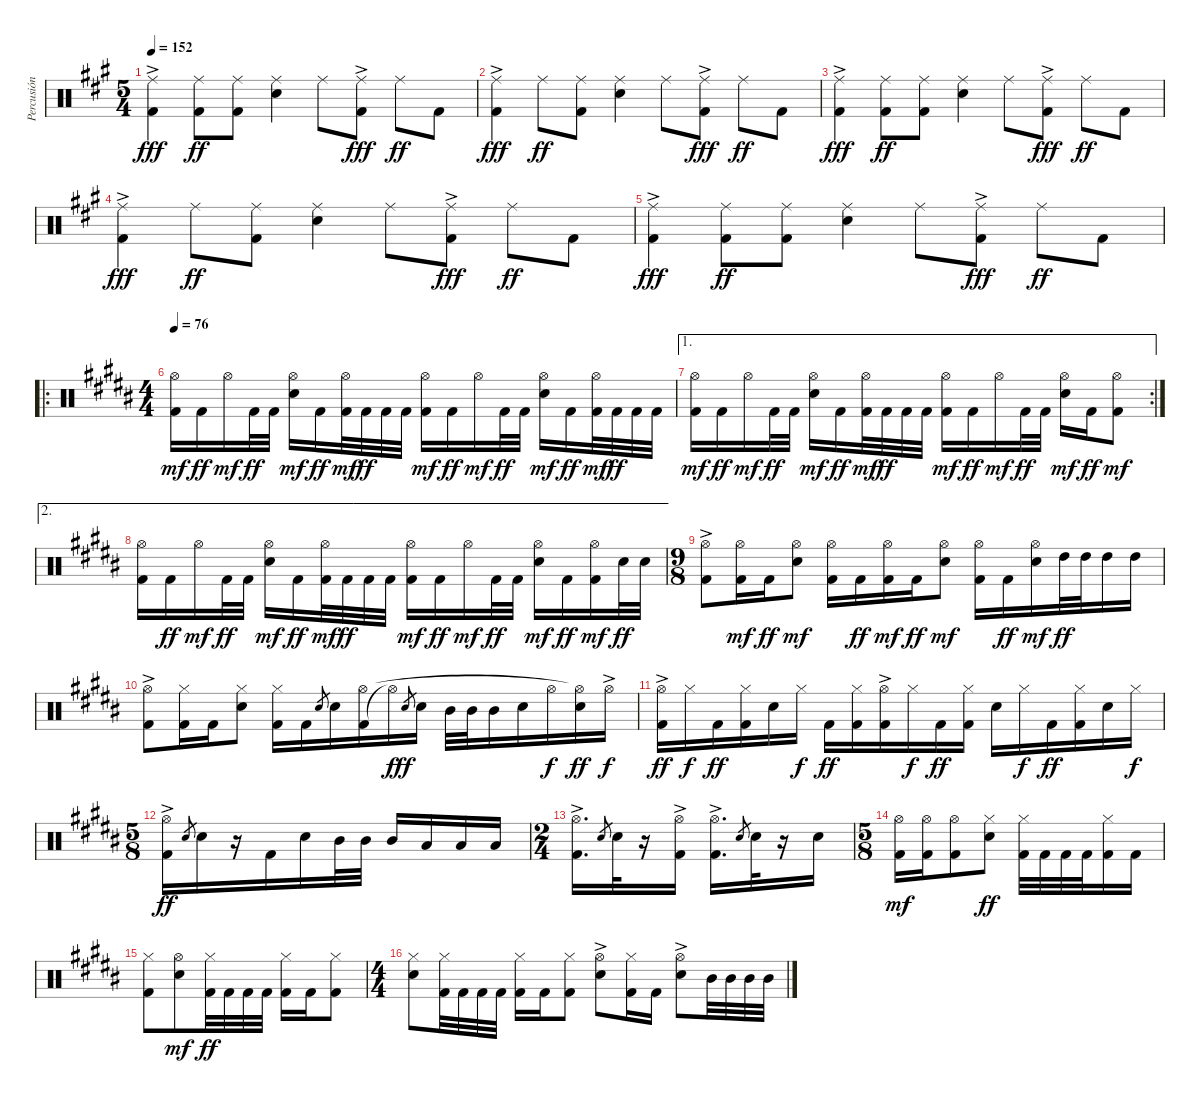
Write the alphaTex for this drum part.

\track ("Percusión" "Percusión") {instrument percussion}
\staff {score}
\articulation defaults
\ts (5 4)
\tempo 152
\clef neutral
\ks a
("Kick (hit) 2" "Ride (middle)"{ac}).4{dy fff} ("Kick (hit) 2" "Ride (middle)").8{dy ff} ("Kick (hit) 2" "Ride (middle)").8 ("Electric Snare (hit)" "Ride (middle)").4 "Ride (middle)".8 ("Kick (hit) 2" "Ride (middle)"{ac}).8{dy fff} "Ride (middle)".8{dy ff} "Kick (hit) 2".8 |
("Kick (hit) 2" "Ride (middle)"{ac}).4{dy fff} "Ride (middle)".8{dy ff} ("Kick (hit) 2" "Ride (middle)").8 ("Electric Snare (hit)" "Ride (middle)").4 "Ride (middle)".8 ("Kick (hit) 2" "Ride (middle)"{ac}).8{dy fff} "Ride (middle)".8{dy ff} "Kick (hit) 2".8 |
("Kick (hit) 2" "Ride (middle)"{ac}).4{dy fff} ("Kick (hit) 2" "Ride (middle)").8{dy ff} ("Kick (hit) 2" "Ride (middle)").8 ("Electric Snare (hit)" "Ride (middle)").4 "Ride (middle)".8 ("Kick (hit) 2" "Ride (middle)"{ac}).8{dy fff} "Ride (middle)".8{dy ff} "Kick (hit) 2".8 |
("Kick (hit) 2" "Ride (middle)"{ac}).4{dy fff} "Ride (middle)".8{dy ff} ("Kick (hit) 2" "Ride (middle)").8 ("Electric Snare (hit)" "Ride (middle)").4 "Ride (middle)".8 ("Kick (hit) 2" "Ride (middle)"{ac}).8{dy fff} "Ride (middle)".8{dy ff} "Kick (hit) 2".8 |
("Kick (hit) 2" "Ride (middle)"{ac}).4{dy fff} ("Kick (hit) 2" "Ride (middle)").8{dy ff} ("Kick (hit) 2" "Ride (middle)").8 ("Electric Snare (hit)" "Ride (middle)").4 "Ride (middle)".8 ("Kick (hit) 2" "Ride (middle)"{ac}).8{dy fff} "Ride (middle)".8{dy ff} "Kick (hit) 2".8 |
\ro
\ts (4 4)
\tempo 76
\ks b
("Kick (hit) 2" "Hi-Hat (open)").16{dy mf} "Kick (hit) 2".16{dy ff} "Hi-Hat (open)".16{dy mf} "Kick (hit) 2".32{dy ff} "Kick (hit) 2".32 ("Electric Snare (hit)" "Hi-Hat (open)").16{dy mf} "Kick (hit) 2".16{dy ff} ("Kick (hit) 2" "Hi-Hat (open)").32{dy mf} "Kick (hit) 2".32{dy ff} "Kick (hit) 2".32 "Kick (hit) 2".32 ("Kick (hit) 2" "Hi-Hat (open)").16{dy mf} "Kick (hit) 2".16{dy ff} "Hi-Hat (open)".16{dy mf} "Kick (hit) 2".32{dy ff} "Kick (hit) 2".32 ("Electric Snare (hit)" "Hi-Hat (open)").16{dy mf} "Kick (hit) 2".16{dy ff} ("Kick (hit) 2" "Hi-Hat (open)").32{dy mf} "Kick (hit) 2".32{dy ff} "Kick (hit) 2".32 "Kick (hit) 2".32 |
\ae 1
\rc 2
("Kick (hit) 2" "Hi-Hat (open)").16{dy mf} "Kick (hit) 2".16{dy ff} "Hi-Hat (open)".16{dy mf} "Kick (hit) 2".32{dy ff} "Kick (hit) 2".32 ("Electric Snare (hit)" "Hi-Hat (open)").16{dy mf} "Kick (hit) 2".16{dy ff} ("Kick (hit) 2" "Hi-Hat (open)").32{dy mf} "Kick (hit) 2".32{dy ff} "Kick (hit) 2".32 "Kick (hit) 2".32 ("Kick (hit) 2" "Hi-Hat (open)").16{dy mf} "Kick (hit) 2".16{dy ff} "Hi-Hat (open)".16{dy mf} "Kick (hit) 2".32{dy ff} "Kick (hit) 2".32 ("Electric Snare (hit)" "Hi-Hat (open)").16{dy mf} "Kick (hit) 2".16{dy ff} ("Kick (hit) 2" "Hi-Hat (open)").8{dy mf} |
\ae 2
("Kick (hit) 2" "Hi-Hat (open)").16 "Kick (hit) 2".16{dy ff} "Hi-Hat (open)".16{dy mf} "Kick (hit) 2".32{dy ff} "Kick (hit) 2".32 ("Electric Snare (hit)" "Hi-Hat (open)").16{dy mf} "Kick (hit) 2".16{dy ff} ("Kick (hit) 2" "Hi-Hat (open)").32{dy mf} "Kick (hit) 2".32{dy ff} "Kick (hit) 2".32 "Kick (hit) 2".32 ("Kick (hit) 2" "Hi-Hat (open)").16{dy mf} "Kick (hit) 2".16{dy ff} "Hi-Hat (open)".16{dy mf} "Kick (hit) 2".32{dy ff} "Kick (hit) 2".32 ("Electric Snare (hit)" "Hi-Hat (open)").16{dy mf} "Kick (hit) 2".16{dy ff} ("Kick (hit) 2" "Hi-Hat (open)").16{dy mf} "Electric Snare (hit)".32{dy ff} "Electric Snare (hit)".32 |
\ts (9 8)
("Kick (hit) 2" "Hi-Hat (open)"{ac}).8 ("Kick (hit) 2" "Hi-Hat (open)").16{dy mf} "Kick (hit) 2".16{dy ff} ("Electric Snare (hit)" "Hi-Hat (open)").8{dy mf} ("Kick (hit) 2" "Hi-Hat (open)").16 "Kick (hit) 2".16{dy ff} ("Kick (hit) 2" "Hi-Hat (open)").16{dy mf} "Kick (hit) 2".16{dy ff} ("Electric Snare (hit)" "Hi-Hat (open)").8{dy mf} ("Kick (hit) 2" "Hi-Hat (open)").16 "Kick (hit) 2".16{dy ff} ("Electric Snare (hit)" "Hi-Hat (open)").16{dy mf} "High Tom (hit)".32{dy ff} "High Tom (hit)".32 "High Tom (hit)".16 "High Tom (hit)".16 |
("Kick (hit) 2" "Hi-Hat (open)"{ac}).8 ("Kick (hit) 2" "Hi-Hat (closed)").16 "Kick (hit) 2".16 ("Electric Snare (hit)" "Hi-Hat (closed)").8 ("Kick (hit) 2" "Hi-Hat (closed)").16 "Kick (hit) 2".16 "Electric Snare (hit)".8{gr} "Electric Snare (hit)".16 ("Kick (hit) 2" "Hi-Hat (open)").16 "Hi-Hat (open)"{t}.16{dy f} "Electric Snare (hit)".8{gr dy ff} "Electric Snare (hit)".16 "Mid Tom (hit)".32 "Mid Tom (hit)".32 "Mid Tom (hit)".16 "Electric Snare (hit)".16 "Hi-Hat (open)".16{dy f} ("Electric Snare (hit)" "Hi-Hat (open)"{t}).16{dy ff} "Hi-Hat (open)"{ac}.16{dy f} |
("Kick (hit) 2" "Hi-Hat (open)"{ac}).16{dy ff} "Hi-Hat (closed)".16{dy f} "Kick (hit) 2".16{dy ff} ("Kick (hit) 2" "Hi-Hat (closed)").16 "Electric Snare (hit)".16 "Hi-Hat (closed)".16{dy f} "Kick (hit) 2".16{dy ff} ("Kick (hit) 2" "Hi-Hat (closed)").16 ("Kick (hit) 2" "Hi-Hat (open)"{ac}).16 "Hi-Hat (closed)".16{dy f} "Kick (hit) 2".16{dy ff} ("Kick (hit) 2" "Hi-Hat (closed)").16 "Electric Snare (hit)".16 "Hi-Hat (closed)".16{dy f} "Kick (hit) 2".16{dy ff} ("Kick (hit) 2" "Hi-Hat (closed)").16 "Electric Snare (hit)".16 "Hi-Hat (closed)".16{dy f} |
\ts (5 8)
("Kick (hit) 2" "Hi-Hat (open)"{ac}).16{dy ff} "Electric Snare (hit)".8{gr} "Electric Snare (hit)".16 r.16 "Kick (hit) 2".16 "Electric Snare (hit)".16 "Mid Tom (hit)".32 "Mid Tom (hit)".32 "Mid Tom (hit)".16 "Low Tom (hit)".16 "Low Tom (hit)".16 "Low Tom (hit)".16 |
\ts (2 4)
("Kick (hit) 2" "Hi-Hat (open)"{ac}).16{d} "Electric Snare (hit)".8{gr} "Electric Snare (hit)".32 r.16 ("Kick (hit) 2" "Hi-Hat (open)"{ac}).16 ("Kick (hit) 2" "Hi-Hat (open)"{ac}).16{d} "Electric Snare (hit)".8{gr} "Electric Snare (hit)".32 r.16 "Electric Snare (hit)".16 |
\ts (5 8)
("Kick (hit) 2" "Hi-Hat (open)").16{dy mf} ("Kick (hit) 2" "Hi-Hat (open)").16 ("Kick (hit) 2" "Hi-Hat (open)").8 ("Electric Snare (hit)" "Hi-Hat (closed)").8{dy ff} ("Kick (hit) 2" "Hi-Hat (closed)").32 "Kick (hit) 2".32 "Kick (hit) 2".32 "Kick (hit) 2".32 ("Kick (hit) 2" "Hi-Hat (closed)").16 "Kick (hit) 2".16 |
("Kick (hit) 2" "Hi-Hat (closed)").8 ("Electric Snare (hit)" "Hi-Hat (open)").8{dy mf} ("Kick (hit) 2" "Hi-Hat (closed)").32{dy ff} "Kick (hit) 2".32 "Kick (hit) 2".32 "Kick (hit) 2".32 ("Kick (hit) 2" "Hi-Hat (closed)").16 "Kick (hit) 2".16 ("Kick (hit) 2" "Hi-Hat (closed)").8 |
\ts (4 4)
("Electric Snare (hit)" "Hi-Hat (closed)").8 ("Kick (hit) 2" "Hi-Hat (closed)").32 "Kick (hit) 2".32 "Kick (hit) 2".32 "Kick (hit) 2".32 ("Kick (hit) 2" "Hi-Hat (closed)").16 "Kick (hit) 2".16 ("Kick (hit) 2" "Hi-Hat (closed)").8 ("Electric Snare (hit)" "Hi-Hat (open)"{ac}).8 ("Kick (hit) 2" "Hi-Hat (closed)").16 "Kick (hit) 2".16 ("Electric Snare (hit)" "Hi-Hat (open)"{ac}).8 "Mid Tom (hit)".32 "Mid Tom (hit)".32 "Mid Tom (hit)".32 "Mid Tom (hit)".32
